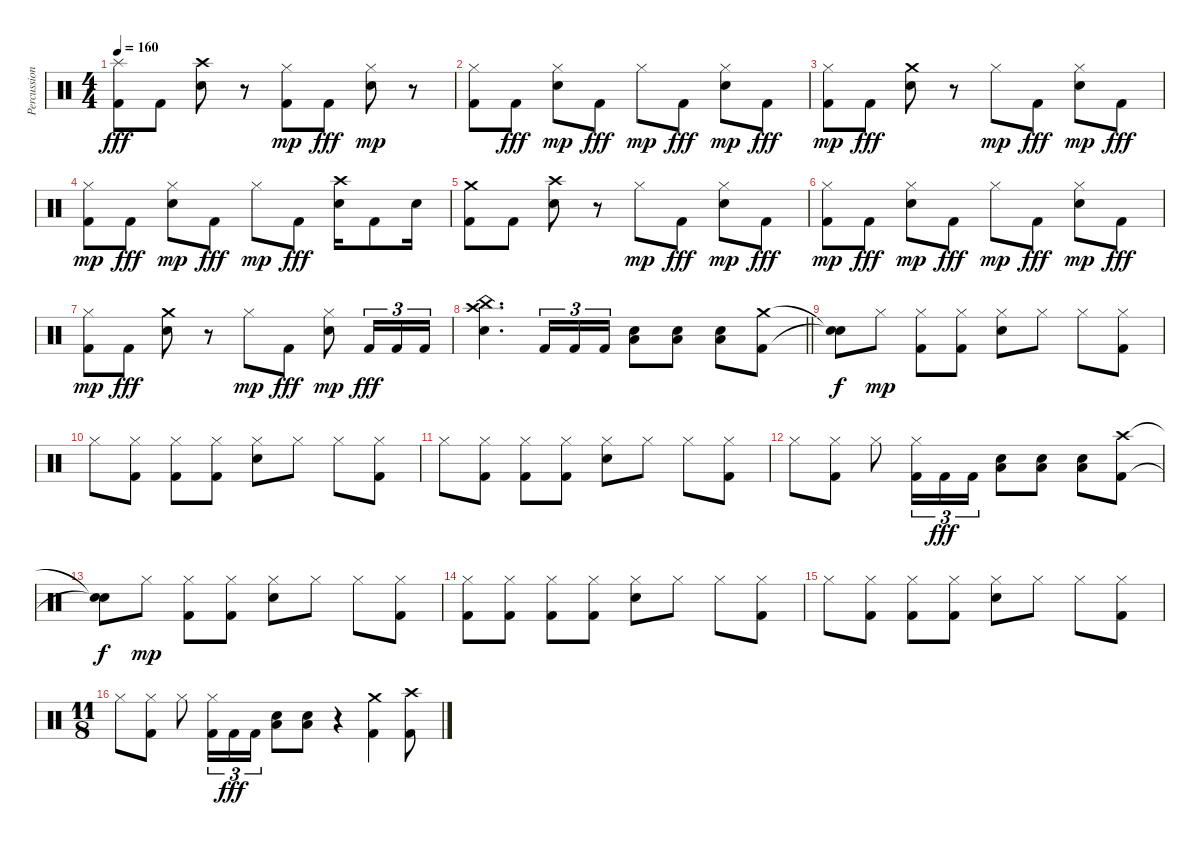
\track ("Percussion" "Percussion") {instrument percussion}
\staff {score}
\articulation defaults
\ts (4 4)
\tempo 160
\clef neutral
\ks c
("Kick (hit) 2" "Splash (hit)").8{dy fff} "Kick (hit) 2".8 ("Electric Snare (hit)" "Crash high (hit)").8 r.8 ("Kick (hit) 2" "Hi-Hat (closed)").8{dy mp} "Kick (hit) 2".8{dy fff} ("Electric Snare (hit)" "Hi-Hat (closed)").8{dy mp} r.8 |
("Kick (hit) 2" "Hi-Hat (closed)").8 "Kick (hit) 2".8{dy fff} ("Electric Snare (hit)" "Hi-Hat (closed)").8{dy mp} "Kick (hit) 2".8{dy fff} "Hi-Hat (closed)".8{dy mp} "Kick (hit) 2".8{dy fff} ("Electric Snare (hit)" "Hi-Hat (closed)").8{dy mp} "Kick (hit) 2".8{dy fff} |
("Kick (hit) 2" "Hi-Hat (closed)").8{dy mp} "Kick (hit) 2".8{dy fff} ("Electric Snare (hit)" "Crash medium (hit)").8 r.8 "Hi-Hat (closed)".8{dy mp} "Kick (hit) 2".8{dy fff} ("Electric Snare (hit)" "Hi-Hat (closed)").8{dy mp} "Kick (hit) 2".8{dy fff} |
("Kick (hit) 2" "Hi-Hat (closed)").8{dy mp} "Kick (hit) 2".8{dy fff} ("Electric Snare (hit)" "Hi-Hat (closed)").8{dy mp} "Kick (hit) 2".8{dy fff} "Hi-Hat (closed)".8{dy mp} "Kick (hit) 2".8{dy fff} ("Electric Snare (hit)" "Crash high (hit)").16 "Kick (hit) 2".8 "Electric Snare (hit)".16 |
("Kick (hit) 2" "Crash medium (hit)").8 "Kick (hit) 2".8 ("Electric Snare (hit)" "Crash high (hit)").8 r.8 "Hi-Hat (closed)".8{dy mp} "Kick (hit) 2".8{dy fff} ("Electric Snare (hit)" "Hi-Hat (closed)").8{dy mp} "Kick (hit) 2".8{dy fff} |
("Kick (hit) 2" "Hi-Hat (closed)").8{dy mp} "Kick (hit) 2".8{dy fff} ("Electric Snare (hit)" "Hi-Hat (closed)").8{dy mp} "Kick (hit) 2".8{dy fff} "Hi-Hat (closed)".8{dy mp} "Kick (hit) 2".8{dy fff} ("Electric Snare (hit)" "Hi-Hat (closed)").8{dy mp} "Kick (hit) 2".8{dy fff} |
("Kick (hit) 2" "Hi-Hat (closed)").8{dy mp} "Kick (hit) 2".8{dy fff} ("Electric Snare (hit)" "Crash medium (hit)").8 r.8 "Hi-Hat (closed)".8{dy mp} "Kick (hit) 2".8{dy fff} ("Electric Snare (hit)" "Hi-Hat (closed)").8{dy mp} "Kick (hit) 2".16{tu (3 2) dy fff} "Kick (hit) 2".16{tu (3 2)} "Kick (hit) 2".16{tu (3 2)} |
\barLineRight lightlight
("Electric Snare (hit)" "China (hit)" "Crash high (hit)").4{d} "Kick (hit) 2".16{tu (3 2)} "Kick (hit) 2".16{tu (3 2)} "Kick (hit) 2".16{tu (3 2)} ("Electric Snare (hit)" "Low Tom (hit)").8 ("Electric Snare (hit)" "Low Tom (hit)").8 ("Electric Snare (hit)" "Low Tom (hit)").8 ("Kick (hit) 2" "Crash medium (hit)").8 |
("Snare (hit)"{t} "Snare (hit)"{t}).8{dy f} "Hi-Hat (closed)".8{dy mp} ("Kick (hit) 2" "Hi-Hat (closed)").8 ("Kick (hit) 2" "Hi-Hat (closed)").8 ("Electric Snare (hit)" "Hi-Hat (closed)").8 "Hi-Hat (closed)".8 "Hi-Hat (closed)".8 ("Kick (hit) 2" "Hi-Hat (closed)").8 |
"Hi-Hat (closed)".8 ("Kick (hit) 2" "Hi-Hat (closed)").8 ("Kick (hit) 2" "Hi-Hat (closed)").8 ("Kick (hit) 2" "Hi-Hat (closed)").8 ("Electric Snare (hit)" "Hi-Hat (closed)").8 "Hi-Hat (closed)".8 "Hi-Hat (closed)".8 ("Kick (hit) 2" "Hi-Hat (closed)").8 |
"Hi-Hat (closed)".8 ("Kick (hit) 2" "Hi-Hat (closed)").8 ("Kick (hit) 2" "Hi-Hat (closed)").8 ("Kick (hit) 2" "Hi-Hat (closed)").8 ("Electric Snare (hit)" "Hi-Hat (closed)").8 "Hi-Hat (closed)".8 "Hi-Hat (closed)".8 ("Kick (hit) 2" "Hi-Hat (closed)").8 |
"Hi-Hat (closed)".8 ("Kick (hit) 2" "Hi-Hat (closed)").8 "Hi-Hat (closed)".8 ("Kick (hit) 2" "Hi-Hat (closed)").16{tu (3 2)} "Kick (hit) 2".16{tu (3 2) dy fff} "Kick (hit) 2".16{tu (3 2)} ("Electric Snare (hit)" "Low Tom (hit)").8 ("Electric Snare (hit)" "Low Tom (hit)").8 ("Electric Snare (hit)" "Low Tom (hit)").8 ("Kick (hit) 2" "Crash high (hit)").8 |
("Snare (hit)"{t} "Snare (hit)"{t}).8{dy f} "Hi-Hat (closed)".8{dy mp} ("Kick (hit) 2" "Hi-Hat (closed)").8 ("Kick (hit) 2" "Hi-Hat (closed)").8 ("Electric Snare (hit)" "Hi-Hat (closed)").8 "Hi-Hat (closed)".8 "Hi-Hat (closed)".8 ("Kick (hit) 2" "Hi-Hat (closed)").8 |
("Kick (hit) 2" "Hi-Hat (closed)").8 ("Kick (hit) 2" "Hi-Hat (closed)").8 ("Kick (hit) 2" "Hi-Hat (closed)").8 ("Kick (hit) 2" "Hi-Hat (closed)").8 ("Electric Snare (hit)" "Hi-Hat (closed)").8 "Hi-Hat (closed)".8 "Hi-Hat (closed)".8 ("Kick (hit) 2" "Hi-Hat (closed)").8 |
"Hi-Hat (closed)".8 ("Kick (hit) 2" "Hi-Hat (closed)").8 ("Kick (hit) 2" "Hi-Hat (closed)").8 ("Kick (hit) 2" "Hi-Hat (closed)").8 ("Electric Snare (hit)" "Hi-Hat (closed)").8 "Hi-Hat (closed)".8 "Hi-Hat (closed)".8 ("Kick (hit) 2" "Hi-Hat (closed)").8 |
\ts (11 8)
"Hi-Hat (closed)".8 ("Kick (hit) 2" "Hi-Hat (closed)").8 "Hi-Hat (closed)".8 ("Kick (hit) 2" "Hi-Hat (closed)").16{tu (3 2)} "Kick (hit) 2".16{tu (3 2) dy fff} "Kick (hit) 2".16{tu (3 2)} ("Electric Snare (hit)" "Low Tom (hit)").8 ("Electric Snare (hit)" "Low Tom (hit)").8 r.4 ("Kick (hit) 2" "Crash medium (hit)").4 ("Kick (hit) 2" "Crash high (hit)").8
